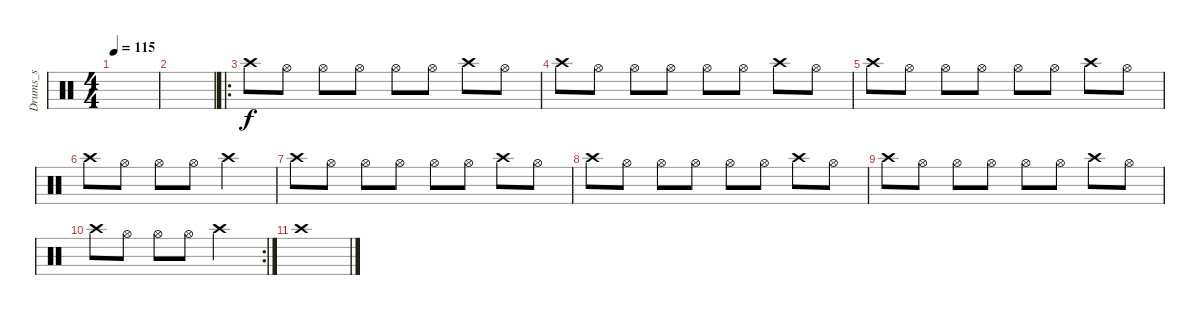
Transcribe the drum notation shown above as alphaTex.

\track ("Drums_s" "Drums_s") {instrument percussion}
\staff {score}
\articulation defaults
\ts (4 4)
\tempo 115
\clef neutral
\ks c
|
|
\ro "Crash high (hit)".8 "Hi-Hat (open)".8 "Hi-Hat (open)".8 "Hi-Hat (open)".8 "Hi-Hat (open)".8 "Hi-Hat (open)".8 "Crash high (hit)".8 "Hi-Hat (open)".8
|
"Crash high (hit)".8 "Hi-Hat (open)".8 "Hi-Hat (open)".8 "Hi-Hat (open)".8 "Hi-Hat (open)".8 "Hi-Hat (open)".8 "Crash high (hit)".8 "Hi-Hat (open)".8 |
"Crash high (hit)".8 "Hi-Hat (open)".8 "Hi-Hat (open)".8 "Hi-Hat (open)".8 "Hi-Hat (open)".8 "Hi-Hat (open)".8 "Crash high (hit)".8 "Hi-Hat (open)".8 |
"Crash high (hit)".8 "Hi-Hat (open)".8 "Hi-Hat (open)".8 "Hi-Hat (open)".8 "Crash high (hit)".2 |
"Crash high (hit)".8 "Hi-Hat (open)".8 "Hi-Hat (open)".8 "Hi-Hat (open)".8 "Hi-Hat (open)".8 "Hi-Hat (open)".8 "Crash high (hit)".8 "Hi-Hat (open)".8 |
"Crash high (hit)".8 "Hi-Hat (open)".8 "Hi-Hat (open)".8 "Hi-Hat (open)".8 "Hi-Hat (open)".8 "Hi-Hat (open)".8 "Crash high (hit)".8 "Hi-Hat (open)".8 |
"Crash high (hit)".8 "Hi-Hat (open)".8 "Hi-Hat (open)".8 "Hi-Hat (open)".8 "Hi-Hat (open)".8 "Hi-Hat (open)".8 "Crash high (hit)".8 "Hi-Hat (open)".8 |
\rc 2 "Crash high (hit)".8 "Hi-Hat (open)".8 "Hi-Hat (open)".8 "Hi-Hat (open)".8 "Crash high (hit)".2
|
"Crash high (hit)".1
